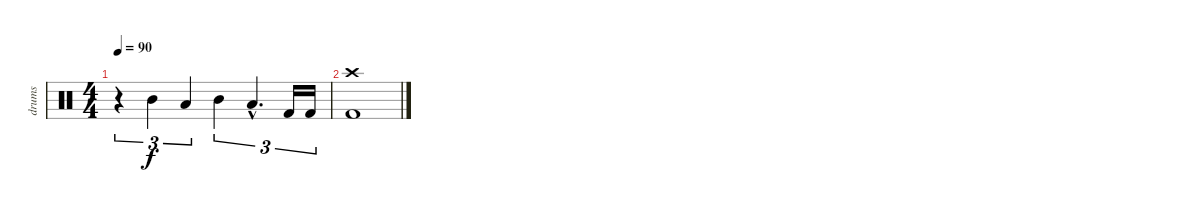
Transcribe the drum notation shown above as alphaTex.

\track ("drums" "drums") {instrument percussion}
\staff {score}
\articulation defaults
\ts (4 4)
\tempo 90
\clef neutral
\ks c
r.4{tu (3 2) dy f} "Mid Tom (hit)".4{tu (3 2)} "Low Tom (hit)".4{tu (3 2)} "Mid Tom (hit)".4{tu (3 2)} "Low Tom (hit)"{hac}.4{d tu (3 2)} "Kick (hit) 2".16{tu (3 2)} "Kick (hit) 2".16{tu (3 2)} |
("Crash high (hit)" "Kick (hit) 2").1
